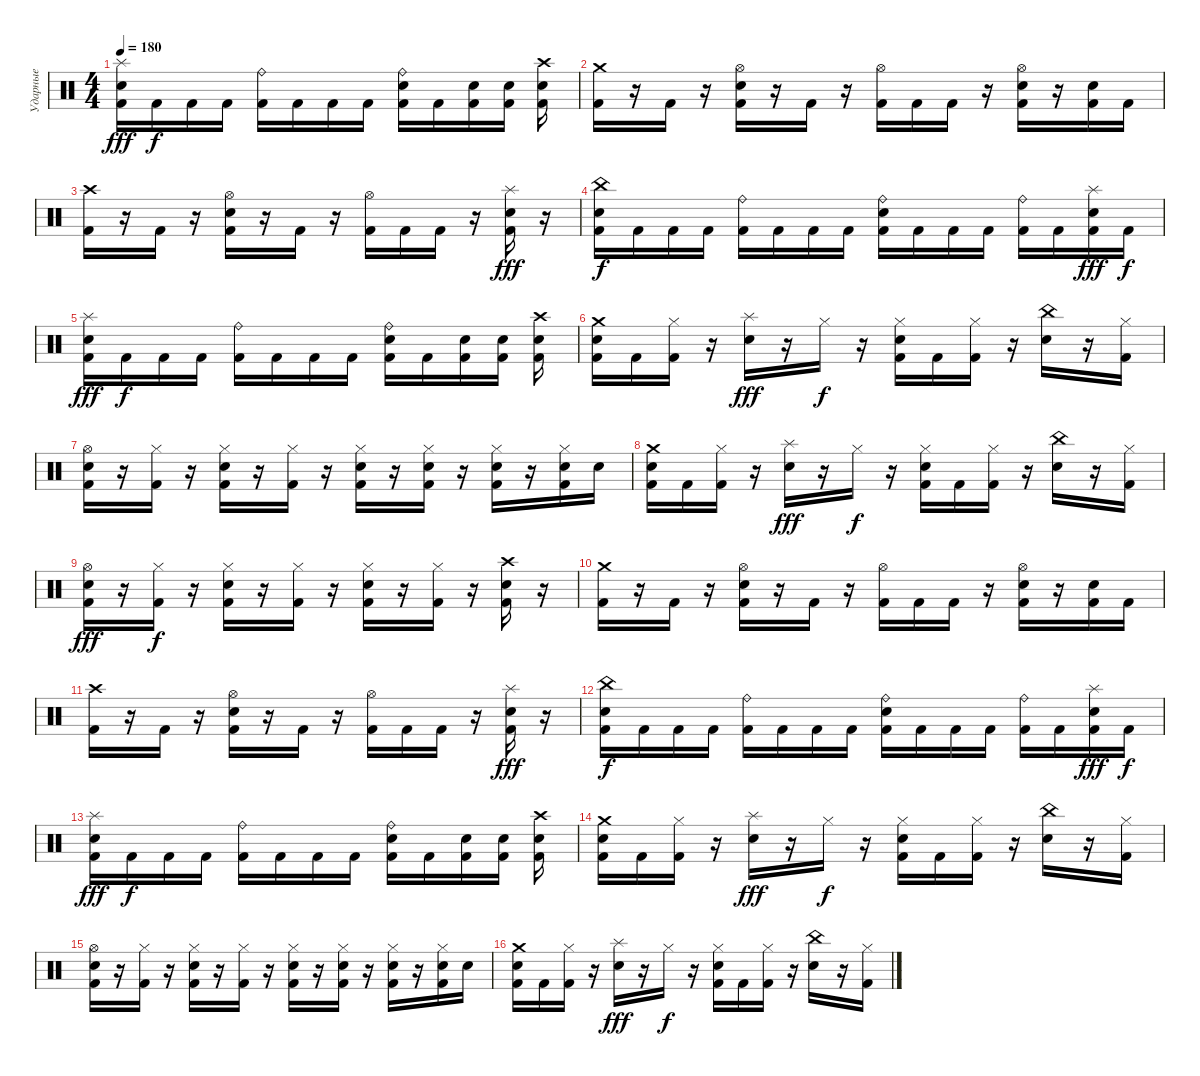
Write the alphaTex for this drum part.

\track ("Ударные" "Ударные") {instrument percussion}
\staff {score}
\articulation defaults
\ts (4 4)
\tempo 180
\clef neutral
\ks c
("Splash (hit)" "Snare (hit) 2" "Kick (hit) 2").16{dy fff} "Kick (hit) 2".16{dy f} "Kick (hit) 2".16 "Kick (hit) 2".16 ("Ride (bell)" "Kick (hit) 2").16 "Kick (hit) 2".16 "Kick (hit) 2".16 "Kick (hit) 2".16 ("Ride (bell)" "Snare (hit) 2" "Kick (hit) 2").16 "Kick (hit) 2".16 ("Snare (hit) 2" "Kick (hit) 2").16 ("Snare (hit) 2" "Kick (hit) 2").16 ("Crash high (hit)" "Snare (hit) 2" "Kick (hit) 2").16 |
("Crash medium (hit)" "Kick (hit) 2").16 r.16 "Kick (hit) 2".16 r.16 ("Hi-Hat (open)" "Snare (hit) 2" "Kick (hit) 2").16 r.16 "Kick (hit) 2".16 r.16 ("Hi-Hat (open)" "Kick (hit) 2").16 "Kick (hit) 2".16 "Kick (hit) 2".16 r.16 ("Hi-Hat (open)" "Snare (hit) 2" "Kick (hit) 2").16 r.16 ("Snare (hit) 2" "Kick (hit) 2").16 "Kick (hit) 2".16 |
("Crash high (hit)" "Kick (hit) 2").16 r.16 "Kick (hit) 2".16 r.16 ("Hi-Hat (open)" "Snare (hit) 2" "Kick (hit) 2").16 r.16 "Kick (hit) 2".16 r.16 ("Hi-Hat (open)" "Kick (hit) 2").16 "Kick (hit) 2".16 "Kick (hit) 2".16 r.16 ("Splash (hit)" "Snare (hit) 2" "Kick (hit) 2").16{dy fff} r.16 |
("China (hit)" "Snare (hit) 2" "Kick (hit) 2").16{dy f} "Kick (hit) 2".16 "Kick (hit) 2".16 "Kick (hit) 2".16 ("Ride (bell)" "Kick (hit) 2").16 "Kick (hit) 2".16 "Kick (hit) 2".16 "Kick (hit) 2".16 ("Ride (bell)" "Snare (hit) 2" "Kick (hit) 2").16 "Kick (hit) 2".16 "Kick (hit) 2".16 "Kick (hit) 2".16 ("Ride (bell)" "Kick (hit) 2").16 "Kick (hit) 2".16 ("Splash (hit)" "Snare (hit) 2" "Kick (hit) 2").16{dy fff} "Kick (hit) 2".16{dy f} |
("Splash (hit)" "Snare (hit) 2" "Kick (hit) 2").16{dy fff} "Kick (hit) 2".16{dy f} "Kick (hit) 2".16 "Kick (hit) 2".16 ("Ride (bell)" "Kick (hit) 2").16 "Kick (hit) 2".16 "Kick (hit) 2".16 "Kick (hit) 2".16 ("Ride (bell)" "Snare (hit) 2" "Kick (hit) 2").16 "Kick (hit) 2".16 ("Snare (hit) 2" "Kick (hit) 2").16 ("Snare (hit) 2" "Kick (hit) 2").16 ("Crash high (hit)" "Snare (hit) 2" "Kick (hit) 2").16 |
("Crash medium (hit)" "Snare (hit) 2" "Kick (hit) 2").16 "Kick (hit) 2".16 ("Hi-Hat (closed)" "Kick (hit) 2").16 r.16 ("Splash (hit)" "Snare (hit) 2").16{dy fff} r.16 "Hi-Hat (closed)".16{dy f} r.16 ("Hi-Hat (closed)" "Snare (hit) 2" "Kick (hit) 2").16 "Kick (hit) 2".16 ("Hi-Hat (closed)" "Kick (hit) 2").16 r.16 ("China (hit)" "Snare (hit) 2").16 r.16 ("Hi-Hat (closed)" "Kick (hit) 2").16 |
("Hi-Hat (open)" "Snare (hit) 2" "Kick (hit) 2").16 r.16 ("Hi-Hat (closed)" "Kick (hit) 2").16 r.16 ("Hi-Hat (closed)" "Snare (hit) 2" "Kick (hit) 2").16 r.16 ("Hi-Hat (closed)" "Kick (hit) 2").16 r.16 ("Hi-Hat (closed)" "Snare (hit) 2" "Kick (hit) 2").16 r.16 ("Hi-Hat (closed)" "Snare (hit) 2" "Kick (hit) 2").16 r.16 ("Hi-Hat (closed)" "Snare (hit) 2" "Kick (hit) 2").16 r.16 ("Hi-Hat (closed)" "Snare (hit) 2" "Kick (hit) 2").16 "Snare (hit) 2".16 |
("Crash medium (hit)" "Snare (hit) 2" "Kick (hit) 2").16 "Kick (hit) 2".16 ("Hi-Hat (closed)" "Kick (hit) 2").16 r.16 ("Splash (hit)" "Snare (hit) 2").16{dy fff} r.16 "Hi-Hat (closed)".16{dy f} r.16 ("Hi-Hat (closed)" "Snare (hit) 2" "Kick (hit) 2").16 "Kick (hit) 2".16 ("Hi-Hat (closed)" "Kick (hit) 2").16 r.16 ("China (hit)" "Snare (hit) 2").16 r.16 ("Hi-Hat (closed)" "Kick (hit) 2").16 |
("Hi-Hat (open)" "Snare (hit) 2" "Kick (hit) 2").16{dy fff} r.16 ("Hi-Hat (closed)" "Kick (hit) 2").16{dy f} r.16 ("Hi-Hat (closed)" "Snare (hit) 2" "Kick (hit) 2").16 r.16 ("Hi-Hat (closed)" "Kick (hit) 2").16 r.16 ("Hi-Hat (closed)" "Snare (hit) 2" "Kick (hit) 2").16 r.16 ("Hi-Hat (closed)" "Kick (hit) 2").16 r.16 ("Crash high (hit)" "Snare (hit) 2" "Kick (hit) 2").16 r.16 |
("Crash medium (hit)" "Kick (hit) 2").16 r.16 "Kick (hit) 2".16 r.16 ("Hi-Hat (open)" "Snare (hit) 2" "Kick (hit) 2").16 r.16 "Kick (hit) 2".16 r.16 ("Hi-Hat (open)" "Kick (hit) 2").16 "Kick (hit) 2".16 "Kick (hit) 2".16 r.16 ("Hi-Hat (open)" "Snare (hit) 2" "Kick (hit) 2").16 r.16 ("Snare (hit) 2" "Kick (hit) 2").16 "Kick (hit) 2".16 |
("Crash high (hit)" "Kick (hit) 2").16 r.16 "Kick (hit) 2".16 r.16 ("Hi-Hat (open)" "Snare (hit) 2" "Kick (hit) 2").16 r.16 "Kick (hit) 2".16 r.16 ("Hi-Hat (open)" "Kick (hit) 2").16 "Kick (hit) 2".16 "Kick (hit) 2".16 r.16 ("Splash (hit)" "Snare (hit) 2" "Kick (hit) 2").16{dy fff} r.16 |
("China (hit)" "Snare (hit) 2" "Kick (hit) 2").16{dy f} "Kick (hit) 2".16 "Kick (hit) 2".16 "Kick (hit) 2".16 ("Ride (bell)" "Kick (hit) 2").16 "Kick (hit) 2".16 "Kick (hit) 2".16 "Kick (hit) 2".16 ("Ride (bell)" "Snare (hit) 2" "Kick (hit) 2").16 "Kick (hit) 2".16 "Kick (hit) 2".16 "Kick (hit) 2".16 ("Ride (bell)" "Kick (hit) 2").16 "Kick (hit) 2".16 ("Splash (hit)" "Snare (hit) 2" "Kick (hit) 2").16{dy fff} "Kick (hit) 2".16{dy f} |
("Splash (hit)" "Snare (hit) 2" "Kick (hit) 2").16{dy fff} "Kick (hit) 2".16{dy f} "Kick (hit) 2".16 "Kick (hit) 2".16 ("Ride (bell)" "Kick (hit) 2").16 "Kick (hit) 2".16 "Kick (hit) 2".16 "Kick (hit) 2".16 ("Ride (bell)" "Snare (hit) 2" "Kick (hit) 2").16 "Kick (hit) 2".16 ("Snare (hit) 2" "Kick (hit) 2").16 ("Snare (hit) 2" "Kick (hit) 2").16 ("Crash high (hit)" "Snare (hit) 2" "Kick (hit) 2").16 |
("Crash medium (hit)" "Snare (hit) 2" "Kick (hit) 2").16 "Kick (hit) 2".16 ("Hi-Hat (closed)" "Kick (hit) 2").16 r.16 ("Splash (hit)" "Snare (hit) 2").16{dy fff} r.16 "Hi-Hat (closed)".16{dy f} r.16 ("Hi-Hat (closed)" "Snare (hit) 2" "Kick (hit) 2").16 "Kick (hit) 2".16 ("Hi-Hat (closed)" "Kick (hit) 2").16 r.16 ("China (hit)" "Snare (hit) 2").16 r.16 ("Hi-Hat (closed)" "Kick (hit) 2").16 |
("Hi-Hat (open)" "Snare (hit) 2" "Kick (hit) 2").16 r.16 ("Hi-Hat (closed)" "Kick (hit) 2").16 r.16 ("Hi-Hat (closed)" "Snare (hit) 2" "Kick (hit) 2").16 r.16 ("Hi-Hat (closed)" "Kick (hit) 2").16 r.16 ("Hi-Hat (closed)" "Snare (hit) 2" "Kick (hit) 2").16 r.16 ("Hi-Hat (closed)" "Snare (hit) 2" "Kick (hit) 2").16 r.16 ("Hi-Hat (closed)" "Snare (hit) 2" "Kick (hit) 2").16 r.16 ("Hi-Hat (closed)" "Snare (hit) 2" "Kick (hit) 2").16 "Snare (hit) 2".16 |
("Crash medium (hit)" "Snare (hit) 2" "Kick (hit) 2").16 "Kick (hit) 2".16 ("Hi-Hat (closed)" "Kick (hit) 2").16 r.16 ("Splash (hit)" "Snare (hit) 2").16{dy fff} r.16 "Hi-Hat (closed)".16{dy f} r.16 ("Hi-Hat (closed)" "Snare (hit) 2" "Kick (hit) 2").16 "Kick (hit) 2".16 ("Hi-Hat (closed)" "Kick (hit) 2").16 r.16 ("China (hit)" "Snare (hit) 2").16 r.16 ("Hi-Hat (closed)" "Kick (hit) 2").16
